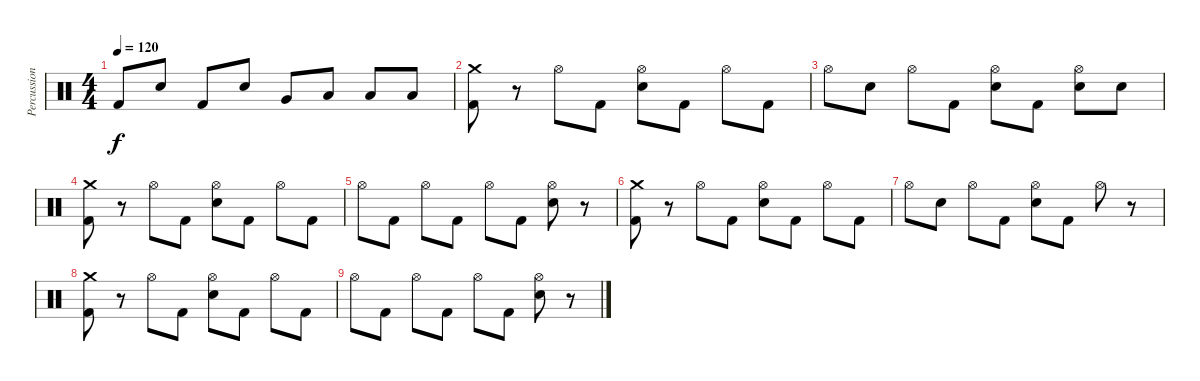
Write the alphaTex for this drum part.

\track ("Percussion" "Percussion") {instrument percussion}
\staff {score}
\articulation defaults
\ts (4 4)
\tempo 120
\clef neutral
\ks c "Kick (hit) 2".8{dy f} "Electric Snare (hit)".8 "Kick (hit) 2".8 "Electric Snare (hit)".8 "Very Low Tom (hit)".8 "Low Tom (hit)".8 "Low Tom (hit)".8 "Low Tom (hit)".8
|
("Kick (hit) 2" "Crash medium (hit)").8 r.8 "Hi-Hat (open)".8 "Kick (hit) 2".8 ("Hi-Hat (open)" "Electric Snare (hit)").8 "Kick (hit) 2".8 "Hi-Hat (open)".8 "Kick (hit) 2".8 |
"Hi-Hat (open)".8 "Electric Snare (hit)".8 "Hi-Hat (open)".8 "Kick (hit) 2".8 ("Hi-Hat (open)" "Electric Snare (hit)").8 "Kick (hit) 2".8 ("Hi-Hat (open)" "Electric Snare (hit)").8 "Electric Snare (hit)".8 |
("Kick (hit) 2" "Crash medium (hit)").8 r.8 "Hi-Hat (open)".8 "Kick (hit) 2".8 ("Hi-Hat (open)" "Electric Snare (hit)").8 "Kick (hit) 2".8 "Hi-Hat (open)".8 "Kick (hit) 2".8 |
"Hi-Hat (open)".8 "Kick (hit) 2".8 "Hi-Hat (open)".8 "Kick (hit) 2".8 "Hi-Hat (open)".8 "Kick (hit) 2".8 ("Hi-Hat (open)" "Electric Snare (hit)").8 r.8 |
("Kick (hit) 2" "Crash medium (hit)").8 r.8 "Hi-Hat (open)".8 "Kick (hit) 2".8 ("Hi-Hat (open)" "Electric Snare (hit)").8 "Kick (hit) 2".8 "Hi-Hat (open)".8 "Kick (hit) 2".8 |
"Hi-Hat (open)".8{volume 0} "Electric Snare (hit)".8 "Hi-Hat (open)".8 "Kick (hit) 2".8 ("Hi-Hat (open)" "Electric Snare (hit)").8 "Kick (hit) 2".8 "Hi-Hat (open)".8 r.8 |
("Kick (hit) 2" "Crash medium (hit)").8 r.8 "Hi-Hat (open)".8 "Kick (hit) 2".8 ("Hi-Hat (open)" "Electric Snare (hit)").8 "Kick (hit) 2".8 "Hi-Hat (open)".8 "Kick (hit) 2".8 |
"Hi-Hat (open)".8 "Kick (hit) 2".8 "Hi-Hat (open)".8 "Kick (hit) 2".8 "Hi-Hat (open)".8 "Kick (hit) 2".8 ("Hi-Hat (open)" "Electric Snare (hit)").8 r.8
